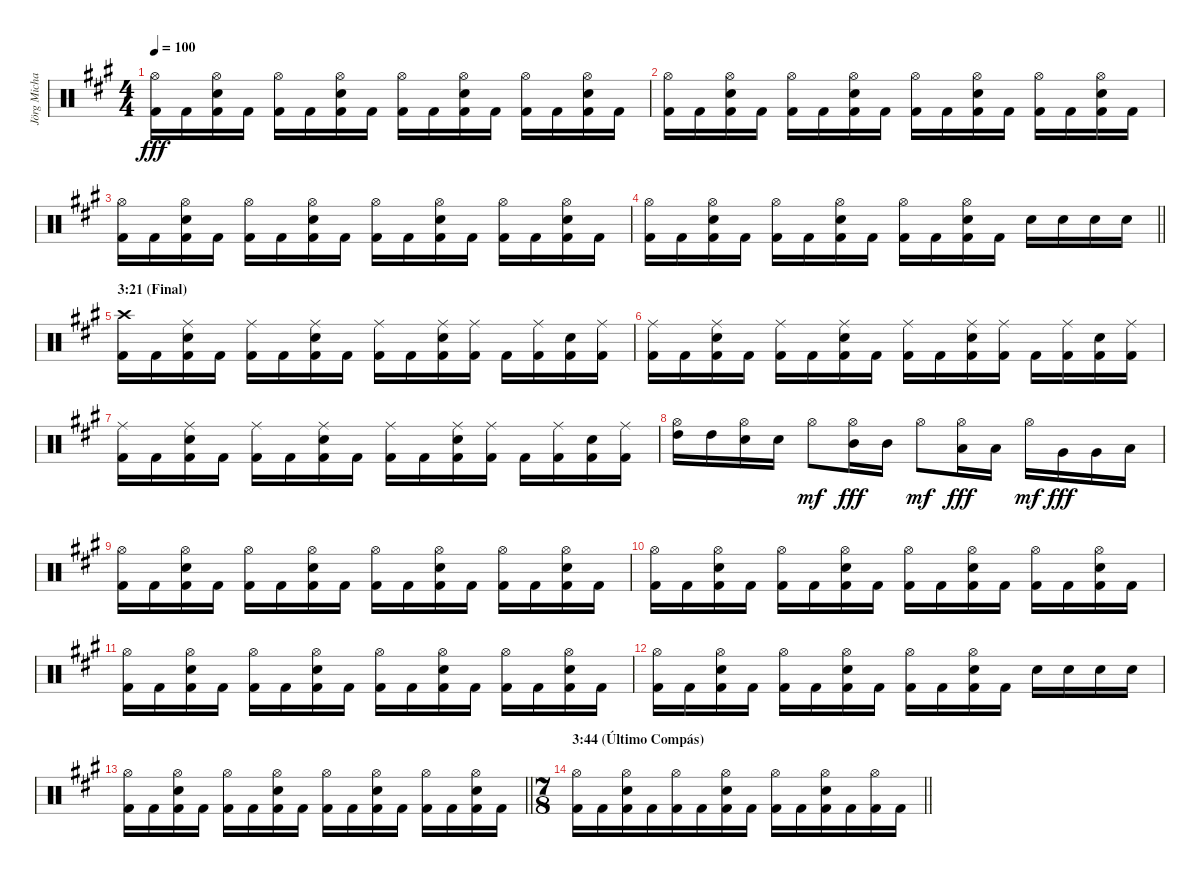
\track ("Jörg Michael (Batería)" "Jörg Micha") {instrument percussion}
\staff {score}
\articulation defaults
\ts (4 4)
\tempo 100
\clef neutral
\ks a
("Hi-Hat (open)" "Kick (hit) 2").16{dy fff} "Kick (hit) 2".16 ("Hi-Hat (open)" "Snare (hit) 2" "Kick (hit) 2").16 "Kick (hit) 2".16 ("Hi-Hat (open)" "Kick (hit) 2").16 "Kick (hit) 2".16 ("Hi-Hat (open)" "Snare (hit) 2" "Kick (hit) 2").16 "Kick (hit) 2".16 ("Hi-Hat (open)" "Kick (hit) 2").16 "Kick (hit) 2".16 ("Hi-Hat (open)" "Snare (hit) 2" "Kick (hit) 2").16 "Kick (hit) 2".16 ("Hi-Hat (open)" "Kick (hit) 2").16 "Kick (hit) 2".16 ("Hi-Hat (open)" "Snare (hit) 2" "Kick (hit) 2").16 "Kick (hit) 2".16 |
("Hi-Hat (open)" "Kick (hit) 2").16 "Kick (hit) 2".16 ("Hi-Hat (open)" "Snare (hit) 2" "Kick (hit) 2").16 "Kick (hit) 2".16 ("Hi-Hat (open)" "Kick (hit) 2").16 "Kick (hit) 2".16 ("Hi-Hat (open)" "Snare (hit) 2" "Kick (hit) 2").16 "Kick (hit) 2".16 ("Hi-Hat (open)" "Kick (hit) 2").16 "Kick (hit) 2".16 ("Hi-Hat (open)" "Snare (hit) 2" "Kick (hit) 2").16 "Kick (hit) 2".16 ("Hi-Hat (open)" "Kick (hit) 2").16 "Kick (hit) 2".16 ("Hi-Hat (open)" "Snare (hit) 2" "Kick (hit) 2").16 "Kick (hit) 2".16 |
("Hi-Hat (open)" "Kick (hit) 2").16 "Kick (hit) 2".16 ("Hi-Hat (open)" "Snare (hit) 2" "Kick (hit) 2").16 "Kick (hit) 2".16 ("Hi-Hat (open)" "Kick (hit) 2").16 "Kick (hit) 2".16 ("Hi-Hat (open)" "Snare (hit) 2" "Kick (hit) 2").16 "Kick (hit) 2".16 ("Hi-Hat (open)" "Kick (hit) 2").16 "Kick (hit) 2".16 ("Hi-Hat (open)" "Snare (hit) 2" "Kick (hit) 2").16 "Kick (hit) 2".16 ("Hi-Hat (open)" "Kick (hit) 2").16 "Kick (hit) 2".16 ("Hi-Hat (open)" "Snare (hit) 2" "Kick (hit) 2").16 "Kick (hit) 2".16 |
\barLineRight lightlight
("Hi-Hat (open)" "Kick (hit) 2").16 "Kick (hit) 2".16 ("Hi-Hat (open)" "Snare (hit) 2" "Kick (hit) 2").16 "Kick (hit) 2".16 ("Hi-Hat (open)" "Kick (hit) 2").16 "Kick (hit) 2".16 ("Hi-Hat (open)" "Snare (hit) 2" "Kick (hit) 2").16 "Kick (hit) 2".16 ("Hi-Hat (open)" "Kick (hit) 2").16 "Kick (hit) 2".16 ("Hi-Hat (open)" "Snare (hit) 2" "Kick (hit) 2").16 "Kick (hit) 2".16 "Snare (hit) 2".16 "Snare (hit) 2".16 "Snare (hit) 2".16 "Snare (hit) 2".16 |
\section ("" "3:21 (Final)")
("Crash high (hit)" "Kick (hit) 2").16 "Kick (hit) 2".16 ("Ride (middle)" "Snare (hit) 2" "Kick (hit) 2").16 "Kick (hit) 2".16 ("Ride (middle)" "Kick (hit) 2").16 "Kick (hit) 2".16 ("Ride (middle)" "Snare (hit) 2" "Kick (hit) 2").16 "Kick (hit) 2".16 ("Ride (middle)" "Kick (hit) 2").16 "Kick (hit) 2".16 ("Ride (middle)" "Snare (hit) 2" "Kick (hit) 2").16 ("Ride (middle)" "Kick (hit) 2").16 "Kick (hit) 2".16 ("Ride (middle)" "Kick (hit) 2").16 ("Snare (hit) 2" "Kick (hit) 2").16 ("Ride (middle)" "Kick (hit) 2").16 |
("Ride (middle)" "Kick (hit) 2").16 "Kick (hit) 2".16 ("Ride (middle)" "Snare (hit) 2" "Kick (hit) 2").16 "Kick (hit) 2".16 ("Ride (middle)" "Kick (hit) 2").16 "Kick (hit) 2".16 ("Ride (middle)" "Snare (hit) 2" "Kick (hit) 2").16 "Kick (hit) 2".16 ("Ride (middle)" "Kick (hit) 2").16 "Kick (hit) 2".16 ("Ride (middle)" "Snare (hit) 2" "Kick (hit) 2").16 ("Ride (middle)" "Kick (hit) 2").16 "Kick (hit) 2".16 ("Ride (middle)" "Kick (hit) 2").16 ("Snare (hit) 2" "Kick (hit) 2").16 ("Ride (middle)" "Kick (hit) 2").16 |
("Ride (middle)" "Kick (hit) 2").16 "Kick (hit) 2".16 ("Ride (middle)" "Snare (hit) 2" "Kick (hit) 2").16 "Kick (hit) 2".16 ("Ride (middle)" "Kick (hit) 2").16 "Kick (hit) 2".16 ("Ride (middle)" "Snare (hit) 2" "Kick (hit) 2").16 "Kick (hit) 2".16 ("Ride (middle)" "Kick (hit) 2").16 "Kick (hit) 2".16 ("Ride (middle)" "Snare (hit) 2" "Kick (hit) 2").16 ("Ride (middle)" "Kick (hit) 2").16 "Kick (hit) 2".16 ("Ride (middle)" "Kick (hit) 2").16 ("Snare (hit) 2" "Kick (hit) 2").16 ("Ride (middle)" "Kick (hit) 2").16 |
("Hi-Hat (open)" "High Tom (hit)").16 "High Tom (hit)".16 ("Hi-Hat (open)" "Snare (hit) 2").16 "Snare (hit) 2".16 "Hi-Hat (open)".8{dy mf} ("Hi-Hat (open)" "Mid Tom (hit)").16{dy fff} "Mid Tom (hit)".16 "Hi-Hat (open)".8{dy mf} ("Hi-Hat (open)" "Low Tom (hit)").16{dy fff} "Low Tom (hit)".16 "Hi-Hat (open)".16{dy mf} "Very Low Tom (hit)".16{dy fff} "Very Low Tom (hit)".16 "Low Floor Tom (hit)".16 |
("Hi-Hat (open)" "Kick (hit) 2").16 "Kick (hit) 2".16 ("Hi-Hat (open)" "Snare (hit) 2" "Kick (hit) 2").16 "Kick (hit) 2".16 ("Hi-Hat (open)" "Kick (hit) 2").16 "Kick (hit) 2".16 ("Hi-Hat (open)" "Snare (hit) 2" "Kick (hit) 2").16 "Kick (hit) 2".16 ("Hi-Hat (open)" "Kick (hit) 2").16 "Kick (hit) 2".16 ("Hi-Hat (open)" "Snare (hit) 2" "Kick (hit) 2").16 "Kick (hit) 2".16 ("Hi-Hat (open)" "Kick (hit) 2").16 "Kick (hit) 2".16 ("Hi-Hat (open)" "Snare (hit) 2" "Kick (hit) 2").16 "Kick (hit) 2".16 |
("Hi-Hat (open)" "Kick (hit) 2").16 "Kick (hit) 2".16 ("Hi-Hat (open)" "Snare (hit) 2" "Kick (hit) 2").16 "Kick (hit) 2".16 ("Hi-Hat (open)" "Kick (hit) 2").16 "Kick (hit) 2".16 ("Hi-Hat (open)" "Snare (hit) 2" "Kick (hit) 2").16 "Kick (hit) 2".16 ("Hi-Hat (open)" "Kick (hit) 2").16 "Kick (hit) 2".16 ("Hi-Hat (open)" "Snare (hit) 2" "Kick (hit) 2").16 "Kick (hit) 2".16 ("Hi-Hat (open)" "Kick (hit) 2").16 "Kick (hit) 2".16 ("Hi-Hat (open)" "Snare (hit) 2" "Kick (hit) 2").16 "Kick (hit) 2".16 |
("Hi-Hat (open)" "Kick (hit) 2").16 "Kick (hit) 2".16 ("Hi-Hat (open)" "Snare (hit) 2" "Kick (hit) 2").16 "Kick (hit) 2".16 ("Hi-Hat (open)" "Kick (hit) 2").16 "Kick (hit) 2".16 ("Hi-Hat (open)" "Snare (hit) 2" "Kick (hit) 2").16 "Kick (hit) 2".16 ("Hi-Hat (open)" "Kick (hit) 2").16 "Kick (hit) 2".16 ("Hi-Hat (open)" "Snare (hit) 2" "Kick (hit) 2").16 "Kick (hit) 2".16 ("Hi-Hat (open)" "Kick (hit) 2").16 "Kick (hit) 2".16 ("Hi-Hat (open)" "Snare (hit) 2" "Kick (hit) 2").16 "Kick (hit) 2".16 |
("Hi-Hat (open)" "Kick (hit) 2").16 "Kick (hit) 2".16 ("Hi-Hat (open)" "Snare (hit) 2" "Kick (hit) 2").16 "Kick (hit) 2".16 ("Hi-Hat (open)" "Kick (hit) 2").16 "Kick (hit) 2".16 ("Hi-Hat (open)" "Snare (hit) 2" "Kick (hit) 2").16 "Kick (hit) 2".16 ("Hi-Hat (open)" "Kick (hit) 2").16 "Kick (hit) 2".16 ("Hi-Hat (open)" "Snare (hit) 2" "Kick (hit) 2").16 "Kick (hit) 2".16 "Snare (hit) 2".16 "Snare (hit) 2".16 "Snare (hit) 2".16 "Snare (hit) 2".16 |
\barLineRight lightlight
("Hi-Hat (open)" "Kick (hit) 2").16 "Kick (hit) 2".16 ("Hi-Hat (open)" "Snare (hit) 2" "Kick (hit) 2").16 "Kick (hit) 2".16 ("Hi-Hat (open)" "Kick (hit) 2").16 "Kick (hit) 2".16 ("Hi-Hat (open)" "Snare (hit) 2" "Kick (hit) 2").16 "Kick (hit) 2".16 ("Hi-Hat (open)" "Kick (hit) 2").16 "Kick (hit) 2".16 ("Hi-Hat (open)" "Snare (hit) 2" "Kick (hit) 2").16 "Kick (hit) 2".16 ("Hi-Hat (open)" "Kick (hit) 2").16 "Kick (hit) 2".16 ("Hi-Hat (open)" "Snare (hit) 2" "Kick (hit) 2").16 "Kick (hit) 2".16 |
\ts (7 8)
\section ("" "3:44 (Último Compás)")
\barLineRight lightlight
("Hi-Hat (open)" "Kick (hit) 2").16 "Kick (hit) 2".16 ("Hi-Hat (open)" "Snare (hit) 2" "Kick (hit) 2").16 "Kick (hit) 2".16 ("Hi-Hat (open)" "Kick (hit) 2").16 "Kick (hit) 2".16 ("Hi-Hat (open)" "Snare (hit) 2" "Kick (hit) 2").16 "Kick (hit) 2".16 ("Hi-Hat (open)" "Kick (hit) 2").16 "Kick (hit) 2".16 ("Hi-Hat (open)" "Snare (hit) 2" "Kick (hit) 2").16 "Kick (hit) 2".16 ("Hi-Hat (open)" "Kick (hit) 2").16 "Kick (hit) 2".16
